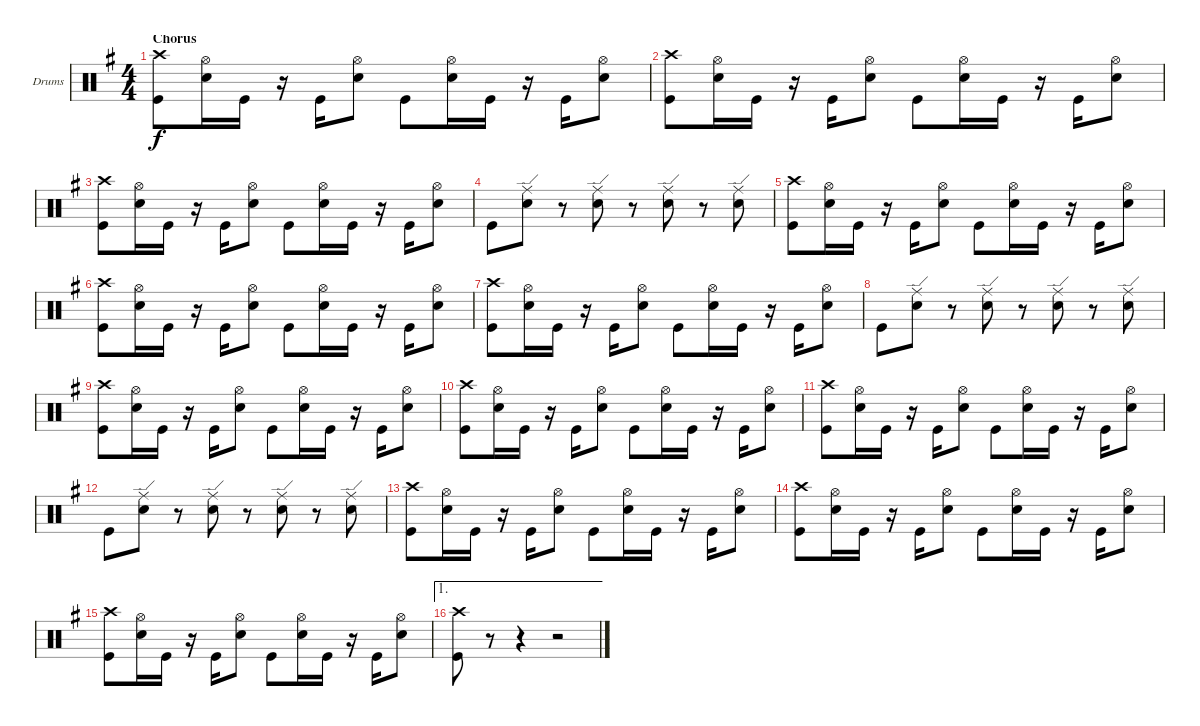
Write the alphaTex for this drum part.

\defaultSystemsLayout 4
\bracketExtendMode groupsimilarinstruments
\firstSystemTrackNameOrientation horizontal
\otherSystemsTrackNameOrientation horizontal
\track ("Drums" "Drums") {instrument percussion}
\staff {score}
\articulation defaults
\ts (4 4)
\section ("" "Chorus")
\tempo (188 hide)
\clef neutral
\ks g
("Kick (hit)" "Crash high (hit)").8{dy f} ("Snare (hit) 2" "Hi-Hat (open)").16 "Kick (hit)".16 r.16 "Kick (hit)".16 ("Snare (hit) 2" "Hi-Hat (open)").8 "Kick (hit)".8 ("Snare (hit) 2" "Hi-Hat (open)").16 "Kick (hit)".16 r.16 "Kick (hit)".16 ("Snare (hit) 2" "Hi-Hat (open)").8 |
("Kick (hit)" "Crash high (hit)").8 ("Snare (hit) 2" "Hi-Hat (open)").16 "Kick (hit)".16 r.16 "Kick (hit)".16 ("Snare (hit) 2" "Hi-Hat (open)").8 "Kick (hit)".8 ("Snare (hit) 2" "Hi-Hat (open)").16 "Kick (hit)".16 r.16 "Kick (hit)".16 ("Snare (hit) 2" "Hi-Hat (open)").8 |
("Kick (hit)" "Crash high (hit)").8 ("Snare (hit) 2" "Hi-Hat (open)").16 "Kick (hit)".16 r.16 "Kick (hit)".16 ("Snare (hit) 2" "Hi-Hat (open)").8 "Kick (hit)".8 ("Snare (hit) 2" "Hi-Hat (open)").16 "Kick (hit)".16 r.16 "Kick (hit)".16 ("Snare (hit) 2" "Hi-Hat (open)").8 |
"Kick (hit)".8 ("Snare (hit) 2" "Ride (edge)").8 r.8 ("Snare (hit) 2" "Ride (edge)").8 r.8 ("Snare (hit) 2" "Ride (edge)").8 r.8 ("Snare (hit) 2" "Ride (edge)").8 |
("Kick (hit)" "Crash high (hit)").8 ("Snare (hit) 2" "Hi-Hat (open)").16 "Kick (hit)".16 r.16 "Kick (hit)".16 ("Snare (hit) 2" "Hi-Hat (open)").8 "Kick (hit)".8 ("Snare (hit) 2" "Hi-Hat (open)").16 "Kick (hit)".16 r.16 "Kick (hit)".16 ("Snare (hit) 2" "Hi-Hat (open)").8 |
("Kick (hit)" "Crash high (hit)").8 ("Snare (hit) 2" "Hi-Hat (open)").16 "Kick (hit)".16 r.16 "Kick (hit)".16 ("Snare (hit) 2" "Hi-Hat (open)").8 "Kick (hit)".8 ("Snare (hit) 2" "Hi-Hat (open)").16 "Kick (hit)".16 r.16 "Kick (hit)".16 ("Snare (hit) 2" "Hi-Hat (open)").8 |
("Kick (hit)" "Crash high (hit)").8 ("Snare (hit) 2" "Hi-Hat (open)").16 "Kick (hit)".16 r.16 "Kick (hit)".16 ("Snare (hit) 2" "Hi-Hat (open)").8 "Kick (hit)".8 ("Snare (hit) 2" "Hi-Hat (open)").16 "Kick (hit)".16 r.16 "Kick (hit)".16 ("Snare (hit) 2" "Hi-Hat (open)").8 |
"Kick (hit)".8 ("Snare (hit) 2" "Ride (edge)").8 r.8 ("Snare (hit) 2" "Ride (edge)").8 r.8 ("Snare (hit) 2" "Ride (edge)").8 r.8 ("Snare (hit) 2" "Ride (edge)").8 |
("Kick (hit)" "Crash high (hit)").8 ("Snare (hit) 2" "Hi-Hat (open)").16 "Kick (hit)".16 r.16 "Kick (hit)".16 ("Snare (hit) 2" "Hi-Hat (open)").8 "Kick (hit)".8 ("Snare (hit) 2" "Hi-Hat (open)").16 "Kick (hit)".16 r.16 "Kick (hit)".16 ("Snare (hit) 2" "Hi-Hat (open)").8 |
("Kick (hit)" "Crash high (hit)").8 ("Snare (hit) 2" "Hi-Hat (open)").16 "Kick (hit)".16 r.16 "Kick (hit)".16 ("Snare (hit) 2" "Hi-Hat (open)").8 "Kick (hit)".8 ("Snare (hit) 2" "Hi-Hat (open)").16 "Kick (hit)".16 r.16 "Kick (hit)".16 ("Snare (hit) 2" "Hi-Hat (open)").8 |
("Kick (hit)" "Crash high (hit)").8 ("Snare (hit) 2" "Hi-Hat (open)").16 "Kick (hit)".16 r.16 "Kick (hit)".16 ("Snare (hit) 2" "Hi-Hat (open)").8 "Kick (hit)".8 ("Snare (hit) 2" "Hi-Hat (open)").16 "Kick (hit)".16 r.16 "Kick (hit)".16 ("Snare (hit) 2" "Hi-Hat (open)").8 |
"Kick (hit)".8 ("Snare (hit) 2" "Ride (edge)").8 r.8 ("Snare (hit) 2" "Ride (edge)").8 r.8 ("Snare (hit) 2" "Ride (edge)").8 r.8 ("Snare (hit) 2" "Ride (edge)").8 |
("Kick (hit)" "Crash high (hit)").8 ("Snare (hit) 2" "Hi-Hat (open)").16 "Kick (hit)".16 r.16 "Kick (hit)".16 ("Snare (hit) 2" "Hi-Hat (open)").8 "Kick (hit)".8 ("Snare (hit) 2" "Hi-Hat (open)").16 "Kick (hit)".16 r.16 "Kick (hit)".16 ("Snare (hit) 2" "Hi-Hat (open)").8 |
("Kick (hit)" "Crash high (hit)").8 ("Snare (hit) 2" "Hi-Hat (open)").16 "Kick (hit)".16 r.16 "Kick (hit)".16 ("Snare (hit) 2" "Hi-Hat (open)").8 "Kick (hit)".8 ("Snare (hit) 2" "Hi-Hat (open)").16 "Kick (hit)".16 r.16 "Kick (hit)".16 ("Snare (hit) 2" "Hi-Hat (open)").8 |
("Kick (hit)" "Crash high (hit)").8 ("Snare (hit) 2" "Hi-Hat (open)").16 "Kick (hit)".16 r.16 "Kick (hit)".16 ("Snare (hit) 2" "Hi-Hat (open)").8 "Kick (hit)".8 ("Snare (hit) 2" "Hi-Hat (open)").16 "Kick (hit)".16 r.16 "Kick (hit)".16 ("Snare (hit) 2" "Hi-Hat (open)").8 |
\ae 1
("Kick (hit)" "Crash high (hit)").8 r.8 r.4 r.2
